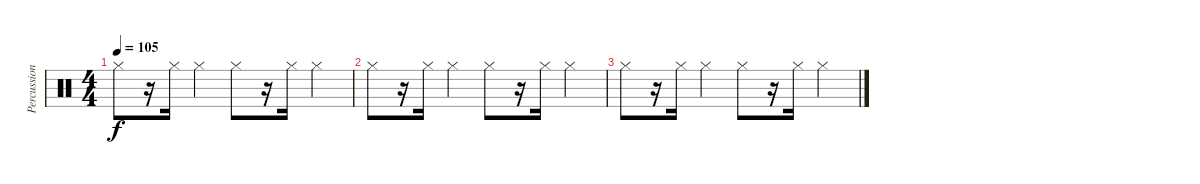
\track ("Percussions" "Percussion") {instrument percussion}
\staff {score}
\articulation defaults
\ts (4 4)
\tempo 105
\clef neutral
\ks c "Hi-Hat (closed)".8{dy f}
r.16 "Hi-Hat (closed)".16 "Hi-Hat (closed)".4 "Hi-Hat (closed)".8 r.16 "Hi-Hat (closed)".16 "Hi-Hat (closed)".4 |
"Hi-Hat (closed)".8 r.16 "Hi-Hat (closed)".16 "Hi-Hat (closed)".4 "Hi-Hat (closed)".8 r.16 "Hi-Hat (closed)".16 "Hi-Hat (closed)".4 |
"Hi-Hat (closed)".8 r.16 "Hi-Hat (closed)".16 "Hi-Hat (closed)".4 "Hi-Hat (closed)".8 r.16 "Hi-Hat (closed)".16 "Hi-Hat (closed)".4
